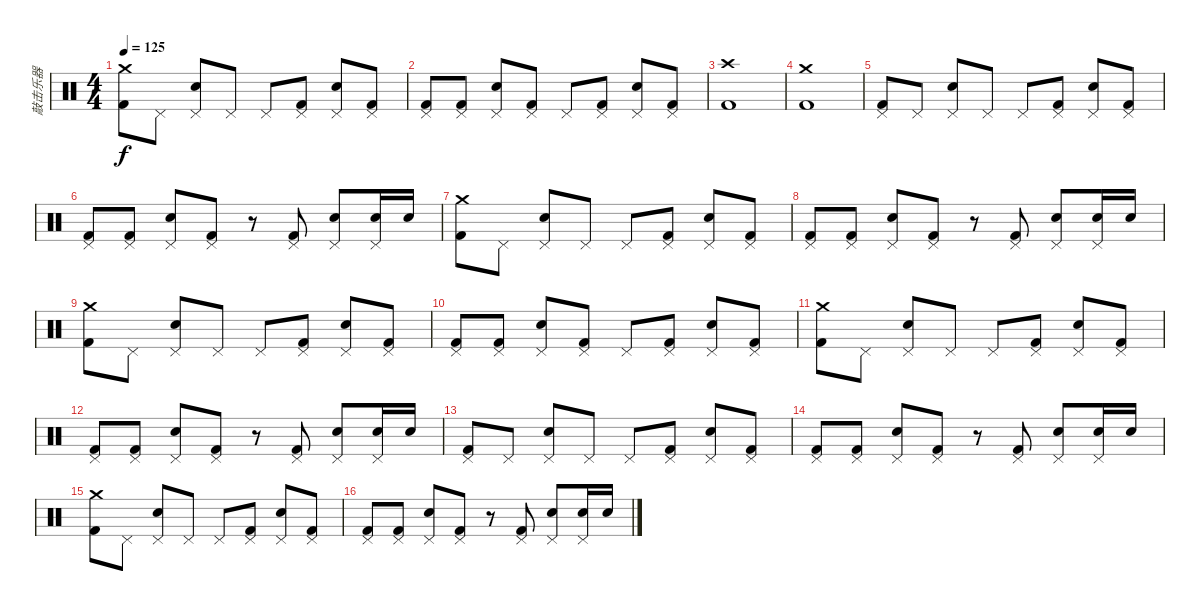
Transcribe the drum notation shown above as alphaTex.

\track ("敲击乐器" "敲击乐器") {instrument percussion}
\staff {score}
\articulation defaults
\ts (4 4)
\tempo 125
\clef neutral
\ks c
("Kick (hit) 2" "Crash medium (hit)").8{dy f} "Pedal Hi-Hat (hit)".8 ("Electric Snare (hit)" "Pedal Hi-Hat (hit)").8 "Pedal Hi-Hat (hit)".8 "Pedal Hi-Hat (hit)".8 ("Kick (hit) 2" "Pedal Hi-Hat (hit)").8 ("Electric Snare (hit)" "Pedal Hi-Hat (hit)").8 ("Kick (hit) 2" "Pedal Hi-Hat (hit)").8 |
("Kick (hit) 2" "Pedal Hi-Hat (hit)").8 ("Kick (hit) 2" "Pedal Hi-Hat (hit)").8 ("Electric Snare (hit)" "Pedal Hi-Hat (hit)").8 ("Kick (hit) 2" "Pedal Hi-Hat (hit)").8 "Pedal Hi-Hat (hit)".8 ("Kick (hit) 2" "Pedal Hi-Hat (hit)").8 ("Electric Snare (hit)" "Pedal Hi-Hat (hit)").8 ("Kick (hit) 2" "Pedal Hi-Hat (hit)").8 |
("Kick (hit) 2" "Crash high (hit)").1 |
("Kick (hit) 2" "Crash medium (hit)").1 |
("Kick (hit) 2" "Pedal Hi-Hat (hit)").8 "Pedal Hi-Hat (hit)".8 ("Electric Snare (hit)" "Pedal Hi-Hat (hit)").8 "Pedal Hi-Hat (hit)".8 "Pedal Hi-Hat (hit)".8 ("Kick (hit) 2" "Pedal Hi-Hat (hit)").8 ("Electric Snare (hit)" "Pedal Hi-Hat (hit)").8 ("Kick (hit) 2" "Pedal Hi-Hat (hit)").8 |
("Kick (hit) 2" "Pedal Hi-Hat (hit)").8 ("Kick (hit) 2" "Pedal Hi-Hat (hit)").8 ("Electric Snare (hit)" "Pedal Hi-Hat (hit)").8 ("Kick (hit) 2" "Pedal Hi-Hat (hit)").8 r.8 ("Kick (hit) 2" "Pedal Hi-Hat (hit)").8 ("Electric Snare (hit)" "Pedal Hi-Hat (hit)").8 ("Electric Snare (hit)" "Pedal Hi-Hat (hit)").16 "Electric Snare (hit)".16 |
("Kick (hit) 2" "Crash medium (hit)").8 "Pedal Hi-Hat (hit)".8 ("Electric Snare (hit)" "Pedal Hi-Hat (hit)").8 "Pedal Hi-Hat (hit)".8 "Pedal Hi-Hat (hit)".8 ("Kick (hit) 2" "Pedal Hi-Hat (hit)").8 ("Electric Snare (hit)" "Pedal Hi-Hat (hit)").8 ("Kick (hit) 2" "Pedal Hi-Hat (hit)").8 |
("Kick (hit) 2" "Pedal Hi-Hat (hit)").8 ("Kick (hit) 2" "Pedal Hi-Hat (hit)").8 ("Electric Snare (hit)" "Pedal Hi-Hat (hit)").8 ("Kick (hit) 2" "Pedal Hi-Hat (hit)").8 r.8 ("Kick (hit) 2" "Pedal Hi-Hat (hit)").8 ("Electric Snare (hit)" "Pedal Hi-Hat (hit)").8 ("Electric Snare (hit)" "Pedal Hi-Hat (hit)").16 "Electric Snare (hit)".16 |
("Kick (hit) 2" "Crash medium (hit)").8 "Pedal Hi-Hat (hit)".8 ("Electric Snare (hit)" "Pedal Hi-Hat (hit)").8 "Pedal Hi-Hat (hit)".8 "Pedal Hi-Hat (hit)".8 ("Kick (hit) 2" "Pedal Hi-Hat (hit)").8 ("Electric Snare (hit)" "Pedal Hi-Hat (hit)").8 ("Kick (hit) 2" "Pedal Hi-Hat (hit)").8 |
("Kick (hit) 2" "Pedal Hi-Hat (hit)").8 ("Kick (hit) 2" "Pedal Hi-Hat (hit)").8 ("Electric Snare (hit)" "Pedal Hi-Hat (hit)").8 ("Kick (hit) 2" "Pedal Hi-Hat (hit)").8 "Pedal Hi-Hat (hit)".8 ("Kick (hit) 2" "Pedal Hi-Hat (hit)").8 ("Electric Snare (hit)" "Pedal Hi-Hat (hit)").8 ("Kick (hit) 2" "Pedal Hi-Hat (hit)").8 |
("Kick (hit) 2" "Crash medium (hit)").8 "Pedal Hi-Hat (hit)".8 ("Electric Snare (hit)" "Pedal Hi-Hat (hit)").8 "Pedal Hi-Hat (hit)".8 "Pedal Hi-Hat (hit)".8 ("Kick (hit) 2" "Pedal Hi-Hat (hit)").8 ("Electric Snare (hit)" "Pedal Hi-Hat (hit)").8 ("Kick (hit) 2" "Pedal Hi-Hat (hit)").8 |
("Kick (hit) 2" "Pedal Hi-Hat (hit)").8 ("Kick (hit) 2" "Pedal Hi-Hat (hit)").8 ("Electric Snare (hit)" "Pedal Hi-Hat (hit)").8 ("Kick (hit) 2" "Pedal Hi-Hat (hit)").8 r.8 ("Kick (hit) 2" "Pedal Hi-Hat (hit)").8 ("Electric Snare (hit)" "Pedal Hi-Hat (hit)").8 ("Electric Snare (hit)" "Pedal Hi-Hat (hit)").16 "Electric Snare (hit)".16 |
("Kick (hit) 2" "Pedal Hi-Hat (hit)").8 "Pedal Hi-Hat (hit)".8 ("Electric Snare (hit)" "Pedal Hi-Hat (hit)").8 "Pedal Hi-Hat (hit)".8 "Pedal Hi-Hat (hit)".8 ("Kick (hit) 2" "Pedal Hi-Hat (hit)").8 ("Electric Snare (hit)" "Pedal Hi-Hat (hit)").8 ("Kick (hit) 2" "Pedal Hi-Hat (hit)").8 |
("Kick (hit) 2" "Pedal Hi-Hat (hit)").8 ("Kick (hit) 2" "Pedal Hi-Hat (hit)").8 ("Electric Snare (hit)" "Pedal Hi-Hat (hit)").8 ("Kick (hit) 2" "Pedal Hi-Hat (hit)").8 r.8 ("Kick (hit) 2" "Pedal Hi-Hat (hit)").8 ("Electric Snare (hit)" "Pedal Hi-Hat (hit)").8 ("Electric Snare (hit)" "Pedal Hi-Hat (hit)").16 "Electric Snare (hit)".16 |
("Kick (hit) 2" "Crash medium (hit)").8 "Pedal Hi-Hat (hit)".8 ("Electric Snare (hit)" "Pedal Hi-Hat (hit)").8 "Pedal Hi-Hat (hit)".8 "Pedal Hi-Hat (hit)".8 ("Kick (hit) 2" "Pedal Hi-Hat (hit)").8 ("Electric Snare (hit)" "Pedal Hi-Hat (hit)").8 ("Kick (hit) 2" "Pedal Hi-Hat (hit)").8 |
("Kick (hit) 2" "Pedal Hi-Hat (hit)").8 ("Kick (hit) 2" "Pedal Hi-Hat (hit)").8 ("Electric Snare (hit)" "Pedal Hi-Hat (hit)").8 ("Kick (hit) 2" "Pedal Hi-Hat (hit)").8 r.8 ("Kick (hit) 2" "Pedal Hi-Hat (hit)").8 ("Electric Snare (hit)" "Pedal Hi-Hat (hit)").8 ("Electric Snare (hit)" "Pedal Hi-Hat (hit)").16 "Electric Snare (hit)".16
